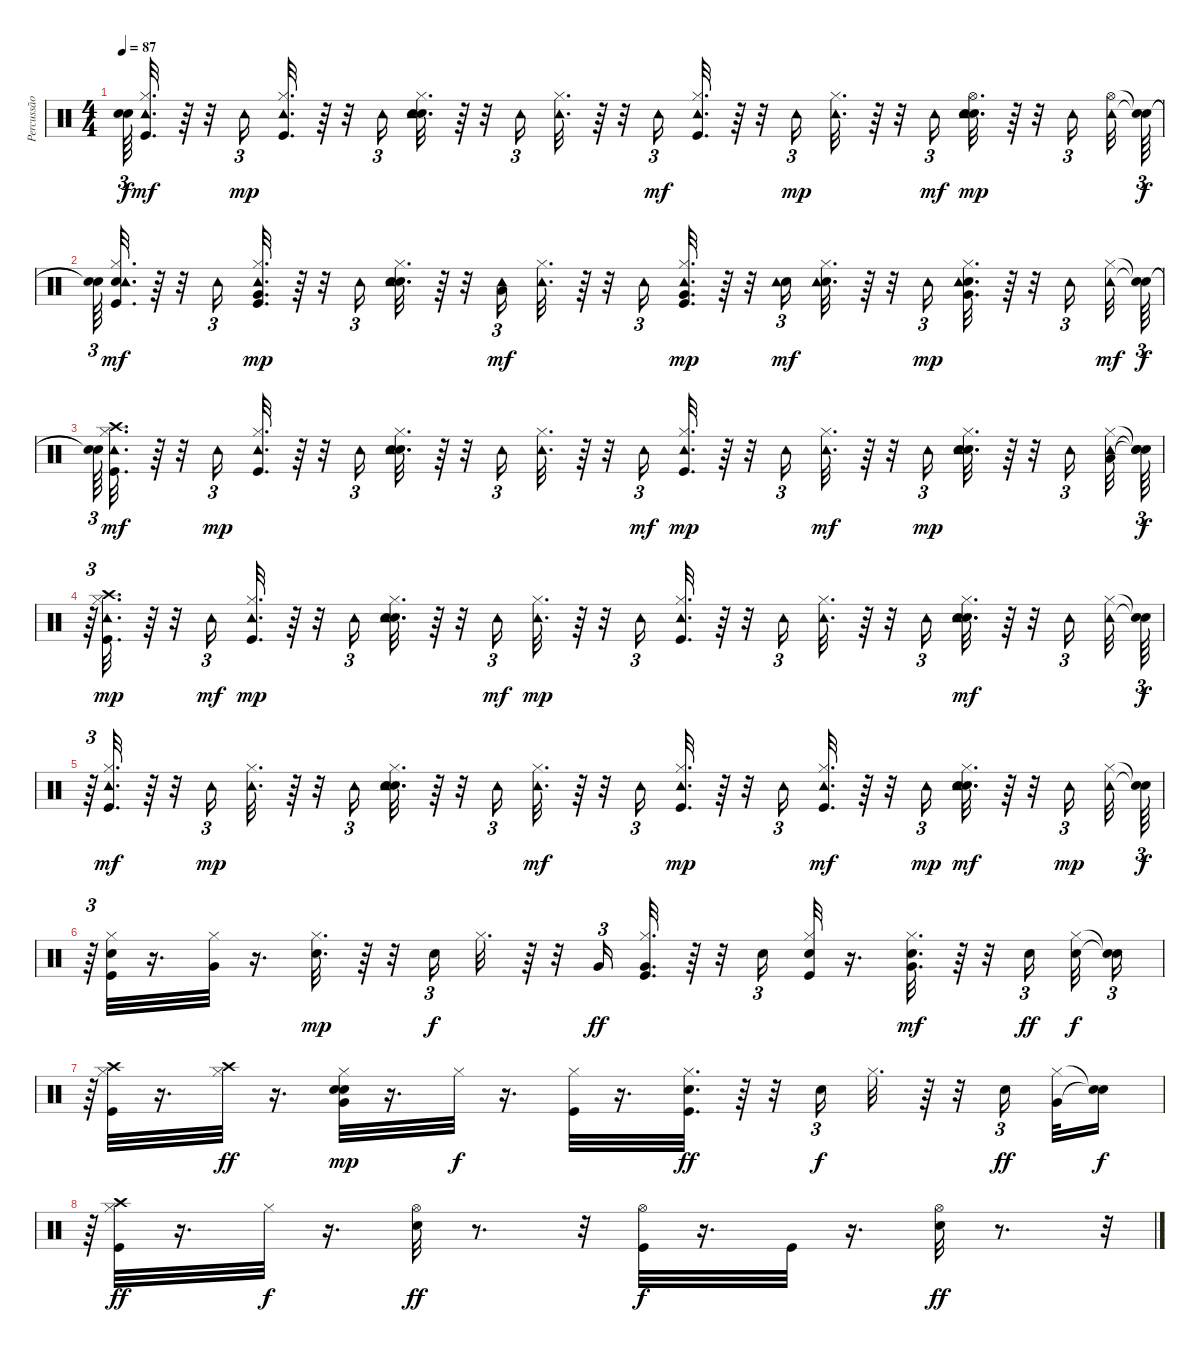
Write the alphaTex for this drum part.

\track ("Percussão" "Percussão") {instrument percussion}
\staff {score}
\articulation defaults
\ts (4 4)
\tempo 87
\clef neutral
\ks c
("Snare (hit)"{t} "Snare (hit)"{t}).64{tu (3 2) dy f} ("Kick (hit)" "Hi-Hat (closed)" "Tambourine (hit)").32{d dy mf} r.64 r.32 "Tambourine (hit)".16{tu (3 2) dy mp} ("Kick (hit)" "Hi-Hat (closed)" "Tambourine (hit)").32{d} r.64 r.32 "Tambourine (hit)".16{tu (3 2)} ("Electric Snare (hit)" "Hi-Hat (closed)" "Hand Clap (hit)" "Tambourine (hit)").32{d} r.64 r.32 "Tambourine (hit)".16{tu (3 2)} ("Hi-Hat (closed)" "Tambourine (hit)").32{d} r.64 r.32 "Tambourine (hit)".16{tu (3 2) dy mf} ("Kick (hit)" "Hi-Hat (closed)" "Tambourine (hit)").32{d} r.64 r.32 "Tambourine (hit)".16{tu (3 2) dy mp} ("Hi-Hat (closed)" "Tambourine (hit)").32{d} r.64 r.32 "Tambourine (hit)".16{tu (3 2) dy mf} ("Electric Snare (hit)" "Hi-Hat (open)" "Hand Clap (hit)" "Tambourine (hit)").32{d dy mp} r.64 r.32 "Tambourine (hit)".16{tu (3 2) beam splitsecondary} ("Hi-Hat (open)" "Tambourine (hit)").32 ("Snare (hit)"{t} "Snare (hit)"{t}).64{tu (3 2) dy f} |
("Snare (hit)"{t} "Snare (hit)"{t}).64{tu (3 2)} ("Kick (hit)" "Electric Snare (hit)" "Hi-Hat (closed)" "Tambourine (hit)").32{d dy mf} r.64 r.32 "Tambourine (hit)".16{tu (3 2)} ("Kick (hit)" "Hi-Hat (closed)" "Very Low Tom (hit)" "Tambourine (hit)").32{d dy mp} r.64 r.32 "Tambourine (hit)".16{tu (3 2)} ("Electric Snare (hit)" "Hi-Hat (closed)" "Hand Clap (hit)" "Tambourine (hit)").32{d} r.64 r.32 ("Low Tom (hit)" "Tambourine (hit)").16{tu (3 2) dy mf} ("Hi-Hat (closed)" "Tambourine (hit)").32{d} r.64 r.32 "Tambourine (hit)".16{tu (3 2)} ("Kick (hit)" "Hi-Hat (closed)" "Very Low Tom (hit)" "Tambourine (hit)").32{d dy mp} r.64 r.32 ("Electric Snare (hit)" "Tambourine (hit)").16{tu (3 2) dy mf} ("Electric Snare (hit)" "Hi-Hat (closed)" "Tambourine (hit)").32{d} r.64 r.32 "Tambourine (hit)".16{tu (3 2) dy mp} ("Hi-Hat (closed)" "Very Low Tom (hit)" "Hand Clap (hit)" "Tambourine (hit)").32{d} r.64 r.32 "Tambourine (hit)".16{tu (3 2) beam splitsecondary} ("Hi-Hat (closed)" "Tambourine (hit)").32{dy mf} ("Snare (hit)"{t} "Snare (hit)"{t}).64{tu (3 2) dy f} |
("Snare (hit)"{t} "Snare (hit)"{t}).64{tu (3 2)} ("Kick (hit)" "Hi-Hat (closed)" "Crash high (hit)" "Tambourine (hit)").32{d dy mf} r.64 r.32 "Tambourine (hit)".16{tu (3 2) dy mp} ("Kick (hit)" "Hi-Hat (closed)" "Tambourine (hit)").32{d} r.64 r.32 "Tambourine (hit)".16{tu (3 2)} ("Electric Snare (hit)" "Hi-Hat (closed)" "Hand Clap (hit)" "Tambourine (hit)").32{d} r.64 r.32 "Tambourine (hit)".16{tu (3 2)} ("Hi-Hat (closed)" "Tambourine (hit)").32{d} r.64 r.32 "Tambourine (hit)".16{tu (3 2) dy mf} ("Kick (hit)" "Hi-Hat (closed)" "Tambourine (hit)").32{d dy mp} r.64 r.32 "Tambourine (hit)".16{tu (3 2)} ("Hi-Hat (closed)" "Tambourine (hit)").32{d dy mf} r.64 r.32 "Tambourine (hit)".16{tu (3 2) dy mp} ("Electric Snare (hit)" "Hi-Hat (closed)" "Hand Clap (hit)" "Tambourine (hit)").32{d} r.64 r.32 "Tambourine (hit)".16{tu (3 2) beam splitsecondary} ("Hi-Hat (closed)" "Low Tom (hit)" "Tambourine (hit)").32 ("Snare (hit)"{t} "Snare (hit)"{t} "Snare (hit)"{t}).64{tu (3 2) dy f} |
r.64{tu (3 2)} ("Kick (hit)" "Hi-Hat (closed)" "Crash high (hit)" "Tambourine (hit)").32{d dy mp} r.64 r.32 "Tambourine (hit)".16{tu (3 2) dy mf} ("Kick (hit)" "Hi-Hat (closed)" "Tambourine (hit)").32{d dy mp} r.64 r.32 "Tambourine (hit)".16{tu (3 2)} ("Electric Snare (hit)" "Hi-Hat (closed)" "Hand Clap (hit)" "Tambourine (hit)").32{d} r.64 r.32 "Tambourine (hit)".16{tu (3 2) dy mf} ("Hi-Hat (closed)" "Tambourine (hit)").32{d dy mp} r.64 r.32 "Tambourine (hit)".16{tu (3 2)} ("Kick (hit)" "Hi-Hat (closed)" "Tambourine (hit)").32{d} r.64 r.32 "Tambourine (hit)".16{tu (3 2)} ("Hi-Hat (closed)" "Tambourine (hit)").32{d} r.64 r.32 "Tambourine (hit)".16{tu (3 2)} ("Electric Snare (hit)" "Hi-Hat (closed)" "Hand Clap (hit)" "Tambourine (hit)").32{d dy mf} r.64 r.32 "Tambourine (hit)".16{tu (3 2) beam splitsecondary} ("Hi-Hat (closed)" "Tambourine (hit)").32 ("Snare (hit)"{t} "Snare (hit)"{t}).64{tu (3 2) dy f} |
r.64{tu (3 2)} ("Kick (hit)" "Hi-Hat (closed)" "Tambourine (hit)").32{d dy mf} r.64 r.32 "Tambourine (hit)".16{tu (3 2) dy mp} ("Hi-Hat (closed)" "Tambourine (hit)").32{d} r.64 r.32 "Tambourine (hit)".16{tu (3 2)} ("Electric Snare (hit)" "Hi-Hat (closed)" "Hand Clap (hit)" "Tambourine (hit)").32{d} r.64 r.32 "Tambourine (hit)".16{tu (3 2)} ("Hi-Hat (closed)" "Tambourine (hit)").32{d dy mf} r.64 r.32 "Tambourine (hit)".16{tu (3 2)} ("Kick (hit)" "Hi-Hat (closed)" "Tambourine (hit)").32{d dy mp} r.64 r.32 "Tambourine (hit)".16{tu (3 2)} ("Kick (hit)" "Hi-Hat (closed)" "Tambourine (hit)").32{d dy mf} r.64 r.32 "Tambourine (hit)".16{tu (3 2) dy mp} ("Electric Snare (hit)" "Hi-Hat (closed)" "Hand Clap (hit)" "Tambourine (hit)").32{d dy mf} r.64 r.32 "Tambourine (hit)".16{tu (3 2) dy mp beam splitsecondary} ("Hi-Hat (closed)" "Tambourine (hit)").32 ("Snare (hit)"{t} "Snare (hit)"{t}).64{tu (3 2) dy f} |
r.64{tu (3 2)} ("Kick (hit)" "Electric Snare (hit)" "Hi-Hat (closed)").32 r.16{d} ("Hi-Hat (closed)" "Very Low Tom (hit)").32 r.16{d} ("Hi-Hat (closed)" "Hand Clap (hit)").32{d dy mp} r.64 r.32 "Electric Snare (hit)".16{tu (3 2) dy f} "Hi-Hat (closed)".32{d} r.64 r.32 "Very Low Tom (hit)".16{tu (3 2) dy ff} ("Kick (hit)" "Hi-Hat (closed)" "Very Low Tom (hit)").32{d} r.64 r.32 "Electric Snare (hit)".16{tu (3 2)} ("Kick (hit)" "Electric Snare (hit)" "Hi-Hat (closed)").32 r.16{d} ("Hi-Hat (closed)" "Very Low Tom (hit)" "Hand Clap (hit)").32{d dy mf} r.64 r.32 "Electric Snare (hit)".16{tu (3 2) dy ff beam splitsecondary} ("Electric Snare (hit)" "Hi-Hat (closed)").32{dy f} ("Snare (hit)"{t} "Snare (hit)"{t}).16{tu (3 2)} |
r.64{tu (3 2)} ("Kick (hit)" "Hi-Hat (closed)" "Crash high (hit)").32 r.16{d} ("Hi-Hat (closed)" "Crash high (hit)").32{dy ff} r.16{d} ("Electric Snare (hit)" "Hi-Hat (closed)" "Very Low Tom (hit)" "Hand Clap (hit)").32{dy mp} r.16{d} "Hi-Hat (closed)".32{dy f} r.16{d} ("Kick (hit)" "Hi-Hat (closed)").32 r.16{d} ("Kick (hit)" "Electric Snare (hit)" "Hi-Hat (closed)").32{d dy ff} r.64 r.32 "Electric Snare (hit)".16{tu (3 2) dy f} "Hi-Hat (closed)".32{d} r.64 r.32 "Electric Snare (hit)".16{tu (3 2) dy ff beam splitsecondary} ("Hi-Hat (closed)" "Very Low Tom (hit)").32 ("Snare (hit)"{t} "Snare (hit)"{t}).16{dy f} |
r.64{tu (3 2)} ("Kick (hit)" "Hi-Hat (closed)" "Crash high (hit)").32{dy ff} r.16{d} "Hi-Hat (closed)".32{dy f} r.16{d} ("Electric Snare (hit)" "Hi-Hat (open)").32{dy ff} r.8{d} r.32 ("Kick (hit)" "Hi-Hat (open)").32{dy f} r.16{d} "Kick (hit)".32 r.16{d} ("Electric Snare (hit)" "Hi-Hat (open)").32{dy ff} r.8{d} r.32{tu (3 2)}
